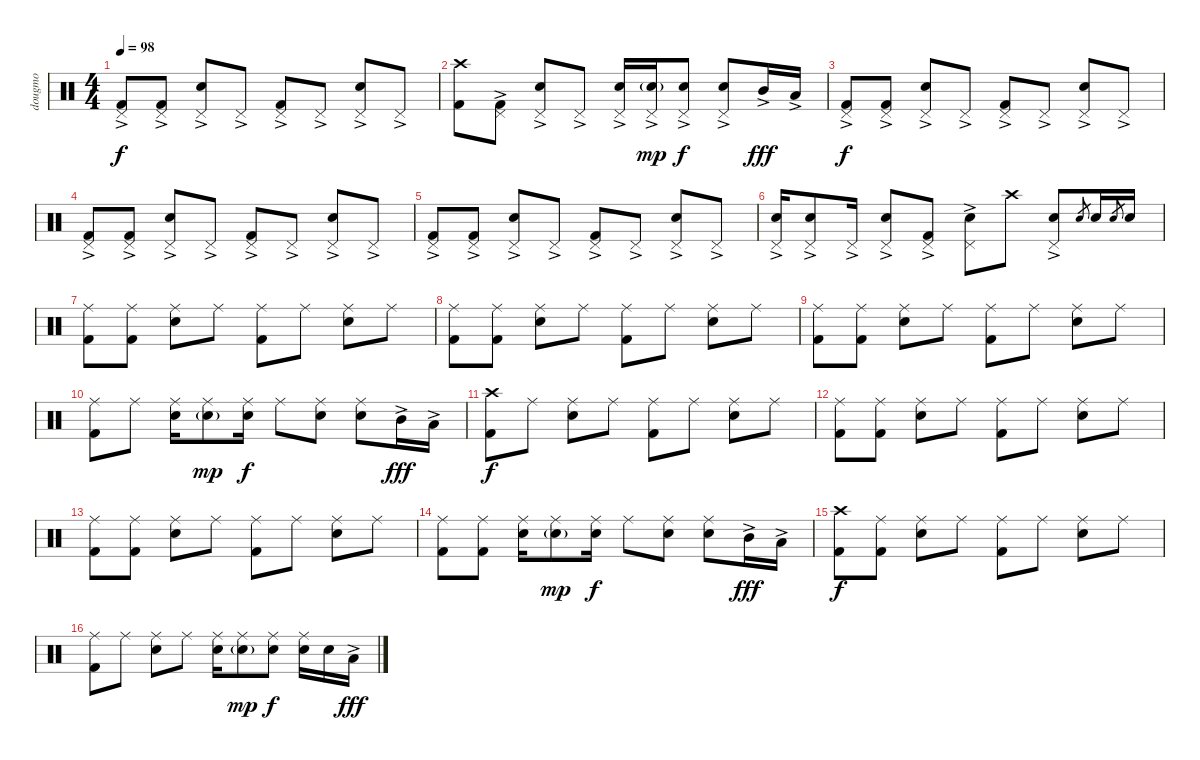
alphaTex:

\track ("dougmo" "dougmo") {instrument percussion}
\staff {score}
\articulation defaults
\ts (4 4)
\tempo 98
\clef neutral
\ks c
("Pedal Hi-Hat (hit)"{ac} "Kick (hit) 2").8{dy f} ("Pedal Hi-Hat (hit)"{ac} "Kick (hit) 2").8 ("Pedal Hi-Hat (hit)"{ac} "Electric Snare (hit)").8 "Pedal Hi-Hat (hit)"{ac}.8 ("Pedal Hi-Hat (hit)"{ac} "Kick (hit) 2").8 "Pedal Hi-Hat (hit)"{ac}.8 ("Pedal Hi-Hat (hit)"{ac} "Electric Snare (hit)").8 "Pedal Hi-Hat (hit)"{ac}.8 |
("Crash high (hit)" "Kick (hit) 2").8 ("Pedal Hi-Hat (hit)"{ac} "Kick (hit) 2").8 ("Pedal Hi-Hat (hit)"{ac} "Electric Snare (hit)").8 "Pedal Hi-Hat (hit)"{ac}.8 ("Pedal Hi-Hat (hit)"{ac} "Electric Snare (hit)").16 ("Pedal Hi-Hat (hit)"{ac} "Electric Snare (hit)"{g}).16{dy mp} ("Pedal Hi-Hat (hit)"{ac} "Electric Snare (hit)").8{dy f} ("Pedal Hi-Hat (hit)"{ac} "Electric Snare (hit)").8 "Mid Tom (hit)"{ac}.16{dy fff} "Low Tom (hit)"{ac}.16 |
("Pedal Hi-Hat (hit)"{ac} "Kick (hit) 2").8{dy f} ("Pedal Hi-Hat (hit)"{ac} "Kick (hit) 2").8 ("Pedal Hi-Hat (hit)"{ac} "Electric Snare (hit)").8 "Pedal Hi-Hat (hit)"{ac}.8 ("Pedal Hi-Hat (hit)"{ac} "Kick (hit) 2").8 "Pedal Hi-Hat (hit)"{ac}.8 ("Pedal Hi-Hat (hit)"{ac} "Electric Snare (hit)").8 "Pedal Hi-Hat (hit)"{ac}.8 |
("Pedal Hi-Hat (hit)"{ac} "Kick (hit) 2").8 ("Pedal Hi-Hat (hit)"{ac} "Kick (hit) 2").8 ("Pedal Hi-Hat (hit)"{ac} "Electric Snare (hit)").8 "Pedal Hi-Hat (hit)"{ac}.8 ("Pedal Hi-Hat (hit)"{ac} "Kick (hit) 2").8 "Pedal Hi-Hat (hit)"{ac}.8 ("Pedal Hi-Hat (hit)"{ac} "Electric Snare (hit)").8 "Pedal Hi-Hat (hit)"{ac}.8 |
("Pedal Hi-Hat (hit)"{ac} "Kick (hit) 2").8 ("Pedal Hi-Hat (hit)"{ac} "Kick (hit) 2").8 ("Pedal Hi-Hat (hit)"{ac} "Electric Snare (hit)").8 "Pedal Hi-Hat (hit)"{ac}.8 ("Pedal Hi-Hat (hit)"{ac} "Kick (hit) 2").8 "Pedal Hi-Hat (hit)"{ac}.8 ("Pedal Hi-Hat (hit)"{ac} "Electric Snare (hit)").8 "Pedal Hi-Hat (hit)"{ac}.8 |
("Pedal Hi-Hat (hit)"{ac} "Electric Snare (hit)").16 ("Pedal Hi-Hat (hit)"{ac} "Electric Snare (hit)").8 "Pedal Hi-Hat (hit)"{ac}.16 ("Pedal Hi-Hat (hit)"{ac} "Electric Snare (hit)").8 ("Pedal Hi-Hat (hit)"{ac} "Kick (hit) 2").8 ("Pedal Hi-Hat (hit)"{ac} "Electric Snare (hit)").8 "Crash high (hit)".8 ("Pedal Hi-Hat (hit)"{ac} "Electric Snare (hit)").8 "Electric Snare (hit)".8{gr} "Electric Snare (hit)".16 "Electric Snare (hit)".8{gr} "Electric Snare (hit)".16 |
("Ride (middle)" "Kick (hit) 2").8 ("Ride (middle)" "Kick (hit) 2").8 ("Ride (middle)" "Electric Snare (hit)").8 "Ride (middle)".8 ("Ride (middle)" "Kick (hit) 2").8 "Ride (middle)".8 ("Ride (middle)" "Electric Snare (hit)").8 "Ride (middle)".8 |
("Ride (middle)" "Kick (hit) 2").8 ("Ride (middle)" "Kick (hit) 2").8 ("Ride (middle)" "Electric Snare (hit)").8 "Ride (middle)".8 ("Ride (middle)" "Kick (hit) 2").8 "Ride (middle)".8 ("Ride (middle)" "Electric Snare (hit)").8 "Ride (middle)".8 |
("Ride (middle)" "Kick (hit) 2").8 ("Ride (middle)" "Kick (hit) 2").8 ("Ride (middle)" "Electric Snare (hit)").8 "Ride (middle)".8 ("Ride (middle)" "Kick (hit) 2").8 "Ride (middle)".8 ("Ride (middle)" "Electric Snare (hit)").8 "Ride (middle)".8 |
("Ride (middle)" "Kick (hit) 2").8 "Ride (middle)".8 ("Ride (middle)" "Electric Snare (hit)").16 ("Ride (middle)" "Electric Snare (hit)"{g}).8{dy mp} ("Ride (middle)" "Electric Snare (hit)").16{dy f} "Ride (middle)".8 ("Ride (middle)" "Electric Snare (hit)").8 ("Ride (middle)" "Electric Snare (hit)").8 "Mid Tom (hit)"{ac}.16{dy fff} "Low Tom (hit)"{ac}.16 |
("Crash high (hit)" "Kick (hit) 2").8{dy f} "Ride (middle)".8 ("Ride (middle)" "Electric Snare (hit)").8 "Ride (middle)".8 ("Ride (middle)" "Kick (hit) 2").8 "Ride (middle)".8 ("Ride (middle)" "Electric Snare (hit)").8 "Ride (middle)".8 |
("Ride (middle)" "Kick (hit) 2").8 ("Ride (middle)" "Kick (hit) 2").8 ("Ride (middle)" "Electric Snare (hit)").8 "Ride (middle)".8 ("Ride (middle)" "Kick (hit) 2").8 "Ride (middle)".8 ("Ride (middle)" "Electric Snare (hit)").8 "Ride (middle)".8 |
("Ride (middle)" "Kick (hit) 2").8 ("Ride (middle)" "Kick (hit) 2").8 ("Ride (middle)" "Electric Snare (hit)").8 "Ride (middle)".8 ("Ride (middle)" "Kick (hit) 2").8 "Ride (middle)".8 ("Ride (middle)" "Electric Snare (hit)").8 "Ride (middle)".8 |
("Ride (middle)" "Kick (hit) 2").8 ("Ride (middle)" "Kick (hit) 2").8 ("Ride (middle)" "Electric Snare (hit)").16 ("Ride (middle)" "Electric Snare (hit)"{g}).8{dy mp} ("Ride (middle)" "Electric Snare (hit)").16{dy f} "Ride (middle)".8 ("Ride (middle)" "Electric Snare (hit)").8 ("Ride (middle)" "Electric Snare (hit)").8 "Mid Tom (hit)"{ac}.16{dy fff} "Low Tom (hit)"{ac}.16 |
("Crash high (hit)" "Kick (hit) 2").8{dy f} ("Ride (middle)" "Kick (hit) 2").8 ("Ride (middle)" "Electric Snare (hit)").8 "Ride (middle)".8 ("Ride (middle)" "Kick (hit) 2").8 "Ride (middle)".8 ("Ride (middle)" "Electric Snare (hit)").8 "Ride (middle)".8 |
("Ride (middle)" "Kick (hit) 2").8 "Ride (middle)".8 ("Ride (middle)" "Electric Snare (hit)").8 "Ride (middle)".8 ("Ride (middle)" "Electric Snare (hit)").16 ("Ride (middle)" "Electric Snare (hit)"{g}).8{dy mp} ("Ride (middle)" "Electric Snare (hit)").8{dy f} ("Ride (middle)" "Electric Snare (hit)").16 "Electric Snare (hit)".16 "Low Tom (hit)"{ac}.16{dy fff}
